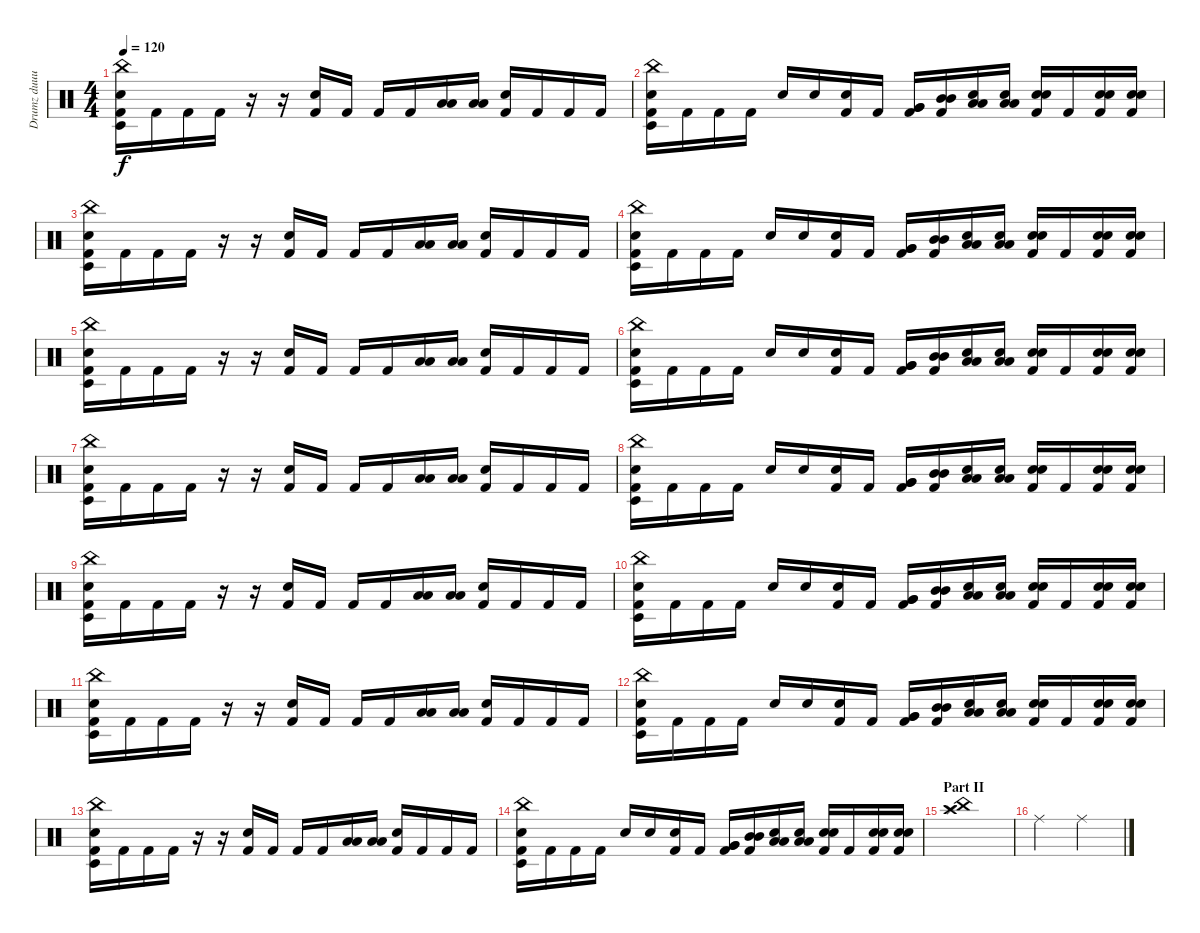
\track ("Drumz duuuuude" "Drumz duuu") {instrument percussion}
\staff {score}
\articulation defaults
\ts (4 4)
\tempo 120
\clef neutral
\ks c
("China (hit)" "Kick (hit) 2" "Timbale low (hit)" "Snare (hit) 2").16{dy f} "Kick (hit) 2".16 "Kick (hit) 2".16 "Kick (hit) 2".16 r.16 r.16 ("Kick (hit) 2" "Snare (hit) 2").16 "Kick (hit) 2".16 "Kick (hit) 2".16 "Kick (hit) 2".16 ("Low Floor Tom (hit)" "Low Floor Tom (hit)").16 ("Low Floor Tom (hit)" "Low Floor Tom (hit)").16 ("Kick (hit) 2" "Snare (hit) 2").16 "Kick (hit) 2".16 "Kick (hit) 2".16 "Kick (hit) 2".16 |
("China (hit)" "Kick (hit) 2" "Timbale low (hit)" "Snare (hit) 2").16 "Kick (hit) 2".16 "Kick (hit) 2".16 "Kick (hit) 2".16 "Electric Snare (hit)".16 "Electric Snare (hit)".16 ("Kick (hit) 2" "Snare (hit) 2").16 "Kick (hit) 2".16 ("Kick (hit) 2" "Very Low Tom (hit)" "Very Low Tom (hit)").16 ("Kick (hit) 2" "Mid Tom (hit)" "Mid Tom (hit)").16 ("Low Tom (hit)" "Low Tom (hit)" "Electric Snare (hit)").16 ("Low Tom (hit)" "Low Tom (hit)" "Electric Snare (hit)").16 ("Kick (hit) 2" "Electric Snare (hit)" "Snare (hit) 2").16 "Kick (hit) 2".16 ("Kick (hit) 2" "Electric Snare (hit)" "Snare (hit) 2").16 ("Kick (hit) 2" "Electric Snare (hit)" "Snare (hit) 2").16 |
("China (hit)" "Kick (hit) 2" "Timbale low (hit)" "Snare (hit) 2").16 "Kick (hit) 2".16 "Kick (hit) 2".16 "Kick (hit) 2".16 r.16 r.16 ("Kick (hit) 2" "Snare (hit) 2").16 "Kick (hit) 2".16 "Kick (hit) 2".16 "Kick (hit) 2".16 ("Low Floor Tom (hit)" "Low Floor Tom (hit)").16 ("Low Floor Tom (hit)" "Low Floor Tom (hit)").16 ("Kick (hit) 2" "Snare (hit) 2").16 "Kick (hit) 2".16 "Kick (hit) 2".16 "Kick (hit) 2".16 |
("China (hit)" "Kick (hit) 2" "Timbale low (hit)" "Snare (hit) 2").16 "Kick (hit) 2".16 "Kick (hit) 2".16 "Kick (hit) 2".16 "Electric Snare (hit)".16 "Electric Snare (hit)".16 ("Kick (hit) 2" "Snare (hit) 2").16 "Kick (hit) 2".16 ("Kick (hit) 2" "Very Low Tom (hit)" "Very Low Tom (hit)").16 ("Kick (hit) 2" "Mid Tom (hit)" "Mid Tom (hit)").16 ("Low Tom (hit)" "Low Tom (hit)" "Electric Snare (hit)").16 ("Low Tom (hit)" "Low Tom (hit)" "Electric Snare (hit)").16 ("Kick (hit) 2" "Electric Snare (hit)" "Snare (hit) 2").16 "Kick (hit) 2".16 ("Kick (hit) 2" "Electric Snare (hit)" "Snare (hit) 2").16 ("Kick (hit) 2" "Electric Snare (hit)" "Snare (hit) 2").16 |
("China (hit)" "Kick (hit) 2" "Timbale low (hit)" "Snare (hit) 2").16 "Kick (hit) 2".16 "Kick (hit) 2".16 "Kick (hit) 2".16 r.16 r.16 ("Kick (hit) 2" "Snare (hit) 2").16 "Kick (hit) 2".16 "Kick (hit) 2".16 "Kick (hit) 2".16 ("Low Floor Tom (hit)" "Low Floor Tom (hit)").16 ("Low Floor Tom (hit)" "Low Floor Tom (hit)").16 ("Kick (hit) 2" "Snare (hit) 2").16 "Kick (hit) 2".16 "Kick (hit) 2".16 "Kick (hit) 2".16 |
("China (hit)" "Kick (hit) 2" "Timbale low (hit)" "Snare (hit) 2").16 "Kick (hit) 2".16 "Kick (hit) 2".16 "Kick (hit) 2".16 "Electric Snare (hit)".16 "Electric Snare (hit)".16 ("Kick (hit) 2" "Snare (hit) 2").16 "Kick (hit) 2".16 ("Kick (hit) 2" "Very Low Tom (hit)" "Very Low Tom (hit)").16 ("Kick (hit) 2" "Mid Tom (hit)" "Mid Tom (hit)").16 ("Low Tom (hit)" "Low Tom (hit)" "Electric Snare (hit)").16 ("Low Tom (hit)" "Low Tom (hit)" "Electric Snare (hit)").16 ("Kick (hit) 2" "Electric Snare (hit)" "Snare (hit) 2").16 "Kick (hit) 2".16 ("Kick (hit) 2" "Electric Snare (hit)" "Snare (hit) 2").16 ("Kick (hit) 2" "Electric Snare (hit)" "Snare (hit) 2").16 |
("China (hit)" "Kick (hit) 2" "Timbale low (hit)" "Snare (hit) 2").16 "Kick (hit) 2".16 "Kick (hit) 2".16 "Kick (hit) 2".16 r.16 r.16 ("Kick (hit) 2" "Snare (hit) 2").16 "Kick (hit) 2".16 "Kick (hit) 2".16 "Kick (hit) 2".16 ("Low Floor Tom (hit)" "Low Floor Tom (hit)").16 ("Low Floor Tom (hit)" "Low Floor Tom (hit)").16 ("Kick (hit) 2" "Snare (hit) 2").16 "Kick (hit) 2".16 "Kick (hit) 2".16 "Kick (hit) 2".16 |
("China (hit)" "Kick (hit) 2" "Timbale low (hit)" "Snare (hit) 2").16 "Kick (hit) 2".16 "Kick (hit) 2".16 "Kick (hit) 2".16 "Electric Snare (hit)".16 "Electric Snare (hit)".16 ("Kick (hit) 2" "Snare (hit) 2").16 "Kick (hit) 2".16 ("Kick (hit) 2" "Very Low Tom (hit)" "Very Low Tom (hit)").16 ("Kick (hit) 2" "Mid Tom (hit)" "Mid Tom (hit)").16 ("Low Tom (hit)" "Low Tom (hit)" "Electric Snare (hit)").16 ("Low Tom (hit)" "Low Tom (hit)" "Electric Snare (hit)").16 ("Kick (hit) 2" "Electric Snare (hit)" "Snare (hit) 2").16 "Kick (hit) 2".16 ("Kick (hit) 2" "Electric Snare (hit)" "Snare (hit) 2").16 ("Kick (hit) 2" "Electric Snare (hit)" "Snare (hit) 2").16 |
("China (hit)" "Kick (hit) 2" "Timbale low (hit)" "Snare (hit) 2").16 "Kick (hit) 2".16 "Kick (hit) 2".16 "Kick (hit) 2".16 r.16 r.16 ("Kick (hit) 2" "Snare (hit) 2").16 "Kick (hit) 2".16 "Kick (hit) 2".16 "Kick (hit) 2".16 ("Low Floor Tom (hit)" "Low Floor Tom (hit)").16 ("Low Floor Tom (hit)" "Low Floor Tom (hit)").16 ("Kick (hit) 2" "Snare (hit) 2").16 "Kick (hit) 2".16 "Kick (hit) 2".16 "Kick (hit) 2".16 |
("China (hit)" "Kick (hit) 2" "Timbale low (hit)" "Snare (hit) 2").16 "Kick (hit) 2".16 "Kick (hit) 2".16 "Kick (hit) 2".16 "Electric Snare (hit)".16 "Electric Snare (hit)".16 ("Kick (hit) 2" "Snare (hit) 2").16 "Kick (hit) 2".16 ("Kick (hit) 2" "Very Low Tom (hit)" "Very Low Tom (hit)").16 ("Kick (hit) 2" "Mid Tom (hit)" "Mid Tom (hit)").16 ("Low Tom (hit)" "Low Tom (hit)" "Electric Snare (hit)").16 ("Low Tom (hit)" "Low Tom (hit)" "Electric Snare (hit)").16 ("Kick (hit) 2" "Electric Snare (hit)" "Snare (hit) 2").16 "Kick (hit) 2".16 ("Kick (hit) 2" "Electric Snare (hit)" "Snare (hit) 2").16 ("Kick (hit) 2" "Electric Snare (hit)" "Snare (hit) 2").16 |
("China (hit)" "Kick (hit) 2" "Timbale low (hit)" "Snare (hit) 2").16 "Kick (hit) 2".16 "Kick (hit) 2".16 "Kick (hit) 2".16 r.16 r.16 ("Kick (hit) 2" "Snare (hit) 2").16 "Kick (hit) 2".16 "Kick (hit) 2".16 "Kick (hit) 2".16 ("Low Floor Tom (hit)" "Low Floor Tom (hit)").16 ("Low Floor Tom (hit)" "Low Floor Tom (hit)").16 ("Kick (hit) 2" "Snare (hit) 2").16 "Kick (hit) 2".16 "Kick (hit) 2".16 "Kick (hit) 2".16 |
("China (hit)" "Kick (hit) 2" "Timbale low (hit)" "Snare (hit) 2").16 "Kick (hit) 2".16 "Kick (hit) 2".16 "Kick (hit) 2".16 "Electric Snare (hit)".16 "Electric Snare (hit)".16 ("Kick (hit) 2" "Snare (hit) 2").16 "Kick (hit) 2".16 ("Kick (hit) 2" "Very Low Tom (hit)" "Very Low Tom (hit)").16 ("Kick (hit) 2" "Mid Tom (hit)" "Mid Tom (hit)").16 ("Low Tom (hit)" "Low Tom (hit)" "Electric Snare (hit)").16 ("Low Tom (hit)" "Low Tom (hit)" "Electric Snare (hit)").16 ("Kick (hit) 2" "Electric Snare (hit)" "Snare (hit) 2").16 "Kick (hit) 2".16 ("Kick (hit) 2" "Electric Snare (hit)" "Snare (hit) 2").16 ("Kick (hit) 2" "Electric Snare (hit)" "Snare (hit) 2").16 |
("China (hit)" "Kick (hit) 2" "Timbale low (hit)" "Snare (hit) 2").16 "Kick (hit) 2".16 "Kick (hit) 2".16 "Kick (hit) 2".16 r.16 r.16 ("Kick (hit) 2" "Snare (hit) 2").16 "Kick (hit) 2".16 "Kick (hit) 2".16 "Kick (hit) 2".16 ("Low Floor Tom (hit)" "Low Floor Tom (hit)").16 ("Low Floor Tom (hit)" "Low Floor Tom (hit)").16 ("Kick (hit) 2" "Snare (hit) 2").16 "Kick (hit) 2".16 "Kick (hit) 2".16 "Kick (hit) 2".16 |
("China (hit)" "Kick (hit) 2" "Timbale low (hit)" "Snare (hit) 2").16 "Kick (hit) 2".16 "Kick (hit) 2".16 "Kick (hit) 2".16 "Electric Snare (hit)".16 "Electric Snare (hit)".16 ("Kick (hit) 2" "Snare (hit) 2").16 "Kick (hit) 2".16 ("Kick (hit) 2" "Very Low Tom (hit)" "Very Low Tom (hit)").16 ("Kick (hit) 2" "Mid Tom (hit)" "Mid Tom (hit)").16 ("Low Tom (hit)" "Low Tom (hit)" "Electric Snare (hit)").16 ("Low Tom (hit)" "Low Tom (hit)" "Electric Snare (hit)").16 ("Kick (hit) 2" "Electric Snare (hit)" "Snare (hit) 2").16 "Kick (hit) 2".16 ("Kick (hit) 2" "Electric Snare (hit)" "Snare (hit) 2").16 ("Kick (hit) 2" "Electric Snare (hit)" "Snare (hit) 2").16 |
\section ("" "Part II")
("Crash high (hit)" "China (hit)" "Splash (hit)").1 |
"Ride (middle)".2 "Ride (middle)".2
